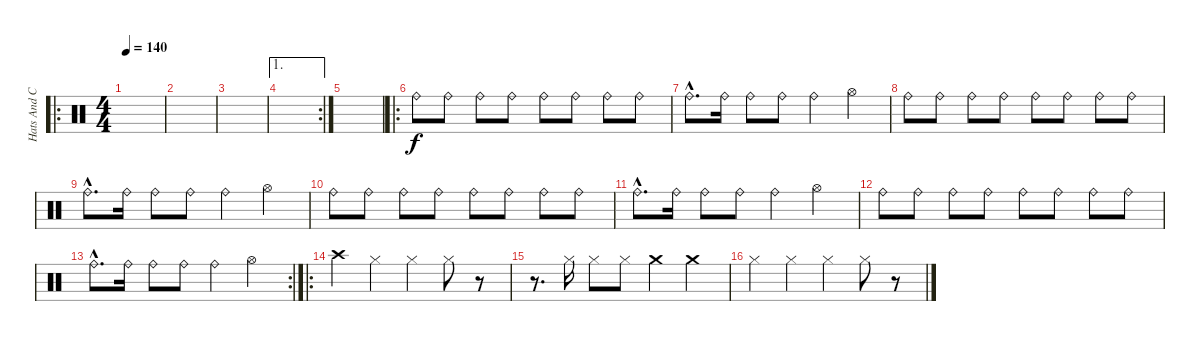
\track ("Hats And Cymbals" "Hats And C") {instrument percussion}
\staff {score}
\articulation defaults
\ro
\ts (4 4)
\tempo 140
\clef neutral
\ks c
|
|
|
\ae 1
\rc 2
|
|
\ro "Ride (bell)".8 "Ride (bell)".8 "Ride (bell)".8 "Ride (bell)".8 "Ride (bell)".8 "Ride (bell)".8 "Ride (bell)".8 "Ride (bell)".8
|
"Ride (bell)"{hac}.8{d} "Ride (bell)".16 "Ride (bell)".8 "Ride (bell)".8 "Ride (bell)".4 "Hi-Hat (open)".4 |
"Ride (bell)".8 "Ride (bell)".8 "Ride (bell)".8 "Ride (bell)".8 "Ride (bell)".8 "Ride (bell)".8 "Ride (bell)".8 "Ride (bell)".8 |
"Ride (bell)"{hac}.8{d} "Ride (bell)".16 "Ride (bell)".8 "Ride (bell)".8 "Ride (bell)".4 "Hi-Hat (open)".4 |
"Ride (bell)".8 "Ride (bell)".8 "Ride (bell)".8 "Ride (bell)".8 "Ride (bell)".8 "Ride (bell)".8 "Ride (bell)".8 "Ride (bell)".8 |
"Ride (bell)"{hac}.8{d} "Ride (bell)".16 "Ride (bell)".8 "Ride (bell)".8 "Ride (bell)".4 "Hi-Hat (open)".4 |
"Ride (bell)".8 "Ride (bell)".8 "Ride (bell)".8 "Ride (bell)".8 "Ride (bell)".8 "Ride (bell)".8 "Ride (bell)".8 "Ride (bell)".8 |
\rc 2 "Ride (bell)"{hac}.8{d} "Ride (bell)".16 "Ride (bell)".8 "Ride (bell)".8 "Ride (bell)".4 "Hi-Hat (open)".4
|
\ro "Crash high (hit)".4 "Hi-Hat (closed)".4 "Hi-Hat (closed)".4 "Hi-Hat (closed)".8
r.8 |
r.8{d} "Hi-Hat (closed)".16 "Hi-Hat (closed)".8 "Hi-Hat (closed)".8 "Crash medium (hit)".4 "Crash medium (hit)".4 |
"Hi-Hat (closed)".4 "Hi-Hat (closed)".4 "Hi-Hat (closed)".4 "Hi-Hat (closed)".8 r.8
